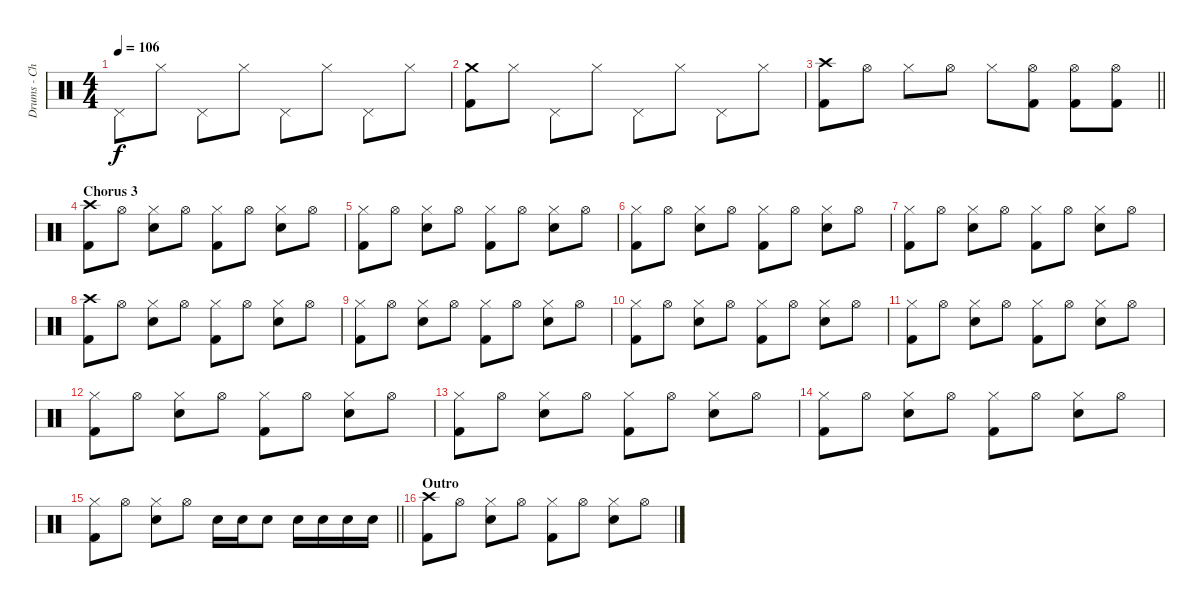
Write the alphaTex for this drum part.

\track ("Drums - Christoph Schneider" "Drums - Ch") {instrument percussion}
\staff {score}
\articulation defaults
\ts (4 4)
\tempo 106
\clef neutral
\ks c "Pedal Hi-Hat (hit)".8{dy f} "Hi-Hat (closed)".8 "Pedal Hi-Hat (hit)".8 "Hi-Hat (closed)".8 "Pedal Hi-Hat (hit)".8 "Hi-Hat (closed)".8 "Pedal Hi-Hat (hit)".8 "Hi-Hat (closed)".8
|
("Crash medium (hit)" "Kick (hit) 2").8 "Hi-Hat (closed)".8 "Pedal Hi-Hat (hit)".8 "Hi-Hat (closed)".8 "Pedal Hi-Hat (hit)".8 "Hi-Hat (closed)".8 "Pedal Hi-Hat (hit)".8 "Hi-Hat (closed)".8 |
\barLineRight lightlight
("Crash high (hit)" "Kick (hit) 2").8 "Hi-Hat (open)".8 "Hi-Hat (closed)".8 "Hi-Hat (open)".8 "Hi-Hat (closed)".8 ("Hi-Hat (open)" "Kick (hit) 2").8 ("Hi-Hat (open)" "Kick (hit) 2").8 ("Hi-Hat (open)" "Kick (hit) 2").8 |
\section ("" "Chorus 3")
("Crash high (hit)" "Kick (hit) 2").8 "Hi-Hat (open)".8 ("Hi-Hat (closed)" "Snare (hit) 2").8 "Hi-Hat (open)".8 ("Hi-Hat (closed)" "Kick (hit) 2").8 "Hi-Hat (open)".8 ("Hi-Hat (closed)" "Snare (hit) 2").8 "Hi-Hat (open)".8 |
("Hi-Hat (closed)" "Kick (hit) 2").8 "Hi-Hat (open)".8 ("Hi-Hat (closed)" "Snare (hit) 2").8 "Hi-Hat (open)".8 ("Hi-Hat (closed)" "Kick (hit) 2").8 "Hi-Hat (open)".8 ("Hi-Hat (closed)" "Snare (hit) 2").8 "Hi-Hat (open)".8 |
("Hi-Hat (closed)" "Kick (hit) 2").8 "Hi-Hat (open)".8 ("Hi-Hat (closed)" "Snare (hit) 2").8 "Hi-Hat (open)".8 ("Hi-Hat (closed)" "Kick (hit) 2").8 "Hi-Hat (open)".8 ("Hi-Hat (closed)" "Snare (hit) 2").8 "Hi-Hat (open)".8 |
("Hi-Hat (closed)" "Kick (hit) 2").8 "Hi-Hat (open)".8 ("Hi-Hat (closed)" "Snare (hit) 2").8 "Hi-Hat (open)".8 ("Hi-Hat (closed)" "Kick (hit) 2").8 "Hi-Hat (open)".8 ("Hi-Hat (closed)" "Snare (hit) 2").8 "Hi-Hat (open)".8 |
("Crash high (hit)" "Kick (hit) 2").8 "Hi-Hat (open)".8 ("Hi-Hat (closed)" "Snare (hit) 2").8 "Hi-Hat (open)".8 ("Hi-Hat (closed)" "Kick (hit) 2").8 "Hi-Hat (open)".8 ("Hi-Hat (closed)" "Snare (hit) 2").8 "Hi-Hat (open)".8 |
("Hi-Hat (closed)" "Kick (hit) 2").8 "Hi-Hat (open)".8 ("Hi-Hat (closed)" "Snare (hit) 2").8 "Hi-Hat (open)".8 ("Hi-Hat (closed)" "Kick (hit) 2").8 "Hi-Hat (open)".8 ("Hi-Hat (closed)" "Snare (hit) 2").8 "Hi-Hat (open)".8 |
("Hi-Hat (closed)" "Kick (hit) 2").8 "Hi-Hat (open)".8 ("Hi-Hat (closed)" "Snare (hit) 2").8 "Hi-Hat (open)".8 ("Hi-Hat (closed)" "Kick (hit) 2").8 "Hi-Hat (open)".8 ("Hi-Hat (closed)" "Snare (hit) 2").8 "Hi-Hat (open)".8 |
("Hi-Hat (closed)" "Kick (hit) 2").8 "Hi-Hat (open)".8 ("Hi-Hat (closed)" "Snare (hit) 2").8 "Hi-Hat (open)".8 ("Hi-Hat (closed)" "Kick (hit) 2").8 "Hi-Hat (open)".8 ("Hi-Hat (closed)" "Snare (hit) 2").8 "Hi-Hat (open)".8 |
("Hi-Hat (closed)" "Kick (hit) 2").8 "Hi-Hat (open)".8 ("Hi-Hat (closed)" "Snare (hit) 2").8 "Hi-Hat (open)".8 ("Hi-Hat (closed)" "Kick (hit) 2").8 "Hi-Hat (open)".8 ("Hi-Hat (closed)" "Snare (hit) 2").8 "Hi-Hat (open)".8 |
("Hi-Hat (closed)" "Kick (hit) 2").8 "Hi-Hat (open)".8 ("Hi-Hat (closed)" "Snare (hit) 2").8 "Hi-Hat (open)".8 ("Hi-Hat (closed)" "Kick (hit) 2").8 "Hi-Hat (open)".8 ("Hi-Hat (closed)" "Snare (hit) 2").8 "Hi-Hat (open)".8 |
("Hi-Hat (closed)" "Kick (hit) 2").8 "Hi-Hat (open)".8 ("Hi-Hat (closed)" "Snare (hit) 2").8 "Hi-Hat (open)".8 ("Hi-Hat (closed)" "Kick (hit) 2").8 "Hi-Hat (open)".8 ("Hi-Hat (closed)" "Snare (hit) 2").8 "Hi-Hat (open)".8 |
\barLineRight lightlight
("Hi-Hat (closed)" "Kick (hit) 2").8 "Hi-Hat (open)".8 ("Hi-Hat (closed)" "Snare (hit) 2").8 "Hi-Hat (open)".8 "Snare (hit) 2".16 "Snare (hit) 2".16 "Snare (hit) 2".8 "Snare (hit) 2".16 "Snare (hit) 2".16 "Snare (hit) 2".16 "Snare (hit) 2".16 |
\section ("" "Outro")
("Crash high (hit)" "Kick (hit) 2").8 "Hi-Hat (open)".8 ("Hi-Hat (closed)" "Snare (hit) 2").8 "Hi-Hat (open)".8 ("Hi-Hat (closed)" "Kick (hit) 2").8 "Hi-Hat (open)".8 ("Hi-Hat (closed)" "Snare (hit) 2").8 "Hi-Hat (open)".8
